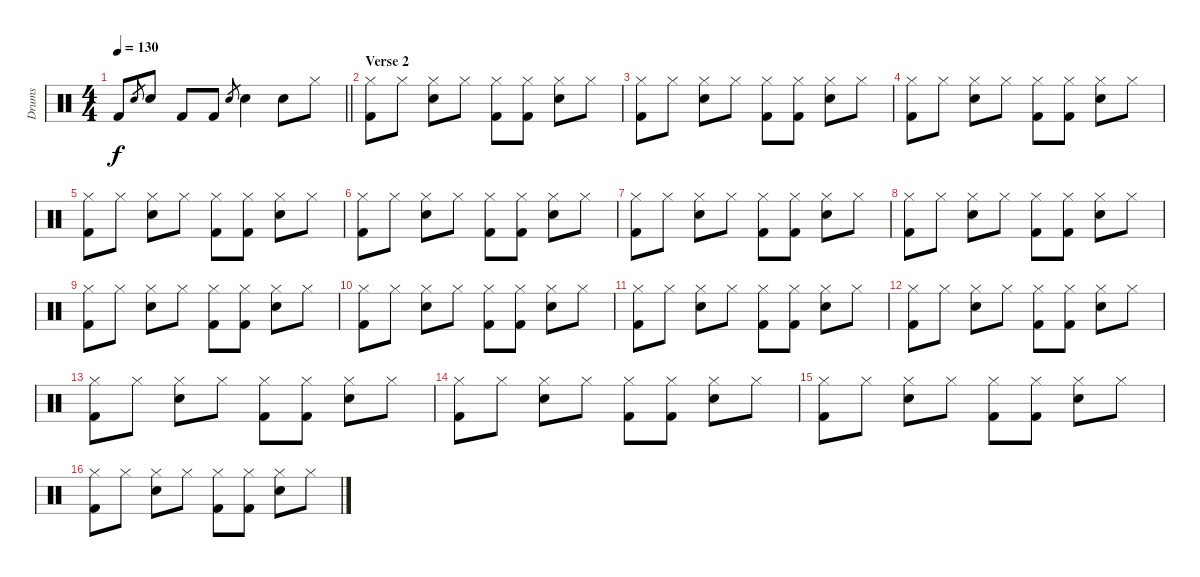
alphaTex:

\track ("Drums" "Drums") {instrument percussion}
\staff {score}
\articulation defaults
\ts (4 4)
\tempo 130
\clef neutral
\barLineRight lightlight
\ks c "Kick (hit) 2".8{dy f} "Snare (hit) 2".8{gr} "Snare (hit) 2".8 "Kick (hit) 2".8 "Kick (hit) 2".8 "Snare (hit) 2".8{gr} "Snare (hit) 2".4 "Snare (hit) 2".8 "Hi-Hat (closed)".8
|
\section ("" "Verse 2")
("Hi-Hat (closed)" "Kick (hit) 2").8 "Hi-Hat (closed)".8 ("Hi-Hat (closed)" "Snare (hit) 2").8 "Hi-Hat (closed)".8 ("Hi-Hat (closed)" "Kick (hit) 2").8 ("Hi-Hat (closed)" "Kick (hit) 2").8 ("Hi-Hat (closed)" "Snare (hit) 2").8 "Hi-Hat (closed)".8 |
("Hi-Hat (closed)" "Kick (hit) 2").8 "Hi-Hat (closed)".8 ("Hi-Hat (closed)" "Snare (hit) 2").8 "Hi-Hat (closed)".8 ("Hi-Hat (closed)" "Kick (hit) 2").8 ("Hi-Hat (closed)" "Kick (hit) 2").8 ("Hi-Hat (closed)" "Snare (hit) 2").8 "Hi-Hat (closed)".8 |
("Hi-Hat (closed)" "Kick (hit) 2").8 "Hi-Hat (closed)".8 ("Hi-Hat (closed)" "Snare (hit) 2").8 "Hi-Hat (closed)".8 ("Hi-Hat (closed)" "Kick (hit) 2").8 ("Hi-Hat (closed)" "Kick (hit) 2").8 ("Hi-Hat (closed)" "Snare (hit) 2").8 "Hi-Hat (closed)".8 |
("Hi-Hat (closed)" "Kick (hit) 2").8 "Hi-Hat (closed)".8 ("Hi-Hat (closed)" "Snare (hit) 2").8 "Hi-Hat (closed)".8 ("Hi-Hat (closed)" "Kick (hit) 2").8 ("Hi-Hat (closed)" "Kick (hit) 2").8 ("Hi-Hat (closed)" "Snare (hit) 2").8 "Hi-Hat (closed)".8 |
("Hi-Hat (closed)" "Kick (hit) 2").8 "Hi-Hat (closed)".8 ("Hi-Hat (closed)" "Snare (hit) 2").8 "Hi-Hat (closed)".8 ("Hi-Hat (closed)" "Kick (hit) 2").8 ("Hi-Hat (closed)" "Kick (hit) 2").8 ("Hi-Hat (closed)" "Snare (hit) 2").8 "Hi-Hat (closed)".8 |
("Hi-Hat (closed)" "Kick (hit) 2").8 "Hi-Hat (closed)".8 ("Hi-Hat (closed)" "Snare (hit) 2").8 "Hi-Hat (closed)".8 ("Hi-Hat (closed)" "Kick (hit) 2").8 ("Hi-Hat (closed)" "Kick (hit) 2").8 ("Hi-Hat (closed)" "Snare (hit) 2").8 "Hi-Hat (closed)".8 |
("Hi-Hat (closed)" "Kick (hit) 2").8 "Hi-Hat (closed)".8 ("Hi-Hat (closed)" "Snare (hit) 2").8 "Hi-Hat (closed)".8 ("Hi-Hat (closed)" "Kick (hit) 2").8 ("Hi-Hat (closed)" "Kick (hit) 2").8 ("Hi-Hat (closed)" "Snare (hit) 2").8 "Hi-Hat (closed)".8 |
("Hi-Hat (closed)" "Kick (hit) 2").8 "Hi-Hat (closed)".8 ("Hi-Hat (closed)" "Snare (hit) 2").8 "Hi-Hat (closed)".8 ("Hi-Hat (closed)" "Kick (hit) 2").8 ("Hi-Hat (closed)" "Kick (hit) 2").8 ("Hi-Hat (closed)" "Snare (hit) 2").8 "Hi-Hat (closed)".8 |
("Hi-Hat (closed)" "Kick (hit) 2").8 "Hi-Hat (closed)".8 ("Hi-Hat (closed)" "Snare (hit) 2").8 "Hi-Hat (closed)".8 ("Hi-Hat (closed)" "Kick (hit) 2").8 ("Hi-Hat (closed)" "Kick (hit) 2").8 ("Hi-Hat (closed)" "Snare (hit) 2").8 "Hi-Hat (closed)".8 |
("Hi-Hat (closed)" "Kick (hit) 2").8 "Hi-Hat (closed)".8 ("Hi-Hat (closed)" "Snare (hit) 2").8 "Hi-Hat (closed)".8 ("Hi-Hat (closed)" "Kick (hit) 2").8 ("Hi-Hat (closed)" "Kick (hit) 2").8 ("Hi-Hat (closed)" "Snare (hit) 2").8 "Hi-Hat (closed)".8 |
("Hi-Hat (closed)" "Kick (hit) 2").8 "Hi-Hat (closed)".8 ("Hi-Hat (closed)" "Snare (hit) 2").8 "Hi-Hat (closed)".8 ("Hi-Hat (closed)" "Kick (hit) 2").8 ("Hi-Hat (closed)" "Kick (hit) 2").8 ("Hi-Hat (closed)" "Snare (hit) 2").8 "Hi-Hat (closed)".8 |
("Hi-Hat (closed)" "Kick (hit) 2").8 "Hi-Hat (closed)".8 ("Hi-Hat (closed)" "Snare (hit) 2").8 "Hi-Hat (closed)".8 ("Hi-Hat (closed)" "Kick (hit) 2").8 ("Hi-Hat (closed)" "Kick (hit) 2").8 ("Hi-Hat (closed)" "Snare (hit) 2").8 "Hi-Hat (closed)".8 |
("Hi-Hat (closed)" "Kick (hit) 2").8 "Hi-Hat (closed)".8 ("Hi-Hat (closed)" "Snare (hit) 2").8 "Hi-Hat (closed)".8 ("Hi-Hat (closed)" "Kick (hit) 2").8 ("Hi-Hat (closed)" "Kick (hit) 2").8 ("Hi-Hat (closed)" "Snare (hit) 2").8 "Hi-Hat (closed)".8 |
("Hi-Hat (closed)" "Kick (hit) 2").8 "Hi-Hat (closed)".8 ("Hi-Hat (closed)" "Snare (hit) 2").8 "Hi-Hat (closed)".8 ("Hi-Hat (closed)" "Kick (hit) 2").8 ("Hi-Hat (closed)" "Kick (hit) 2").8 ("Hi-Hat (closed)" "Snare (hit) 2").8 "Hi-Hat (closed)".8 |
("Hi-Hat (closed)" "Kick (hit) 2").8 "Hi-Hat (closed)".8 ("Hi-Hat (closed)" "Snare (hit) 2").8 "Hi-Hat (closed)".8 ("Hi-Hat (closed)" "Kick (hit) 2").8 ("Hi-Hat (closed)" "Kick (hit) 2").8 ("Hi-Hat (closed)" "Snare (hit) 2").8 "Hi-Hat (closed)".8
